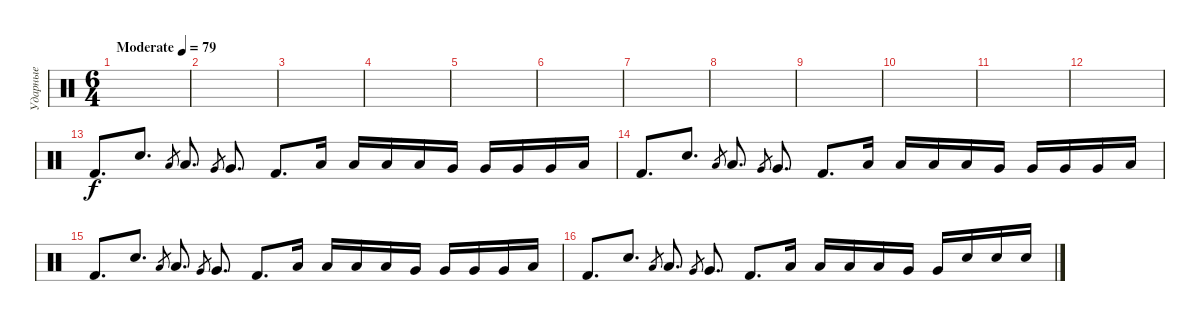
\track ("Ударные" "Ударные") {instrument percussion}
\staff {score}
\articulation defaults
\ts (6 4)
\tempo (79 "Moderate")
\clef neutral
\ks c
|
|
|
|
|
|
|
|
|
|
|
|
"Kick (hit) 2".8{d} "Electric Snare (hit)".8{d} "Low Tom (hit)".8{gr} "Low Tom (hit)".8{d} "Very Low Tom (hit)".8{gr} "Very Low Tom (hit)".8{d} "Kick (hit) 2".8{d} "Low Tom (hit)".16 "Low Tom (hit)".16 "Low Tom (hit)".16 "Low Tom (hit)".16 "Very Low Tom (hit)".16 "Very Low Tom (hit)".16 "Very Low Tom (hit)".16 "Very Low Tom (hit)".16 "Low Floor Tom (hit)".16 |
"Kick (hit) 2".8{d} "Electric Snare (hit)".8{d} "Low Tom (hit)".8{gr} "Low Tom (hit)".8{d} "Very Low Tom (hit)".8{gr} "Very Low Tom (hit)".8{d} "Kick (hit) 2".8{d} "Low Tom (hit)".16 "Low Tom (hit)".16 "Low Tom (hit)".16 "Low Tom (hit)".16 "Very Low Tom (hit)".16 "Very Low Tom (hit)".16 "Very Low Tom (hit)".16 "Very Low Tom (hit)".16 "Low Floor Tom (hit)".16 |
"Kick (hit) 2".8{d} "Electric Snare (hit)".8{d} "Low Tom (hit)".8{gr} "Low Tom (hit)".8{d} "Very Low Tom (hit)".8{gr} "Very Low Tom (hit)".8{d} "Kick (hit) 2".8{d} "Low Tom (hit)".16 "Low Tom (hit)".16 "Low Tom (hit)".16 "Low Tom (hit)".16 "Very Low Tom (hit)".16 "Very Low Tom (hit)".16 "Very Low Tom (hit)".16 "Very Low Tom (hit)".16 "Low Floor Tom (hit)".16 |
"Kick (hit) 2".8{d} "Electric Snare (hit)".8{d} "Low Tom (hit)".8{gr} "Low Tom (hit)".8{d} "Very Low Tom (hit)".8{gr} "Very Low Tom (hit)".8{d} "Kick (hit) 2".8{d} "Low Tom (hit)".16 "Low Tom (hit)".16 "Low Tom (hit)".16 "Low Tom (hit)".16 "Very Low Tom (hit)".16 "Very Low Tom (hit)".16 "Electric Snare (hit)".16 "Electric Snare (hit)".16 "Electric Snare (hit)".16
